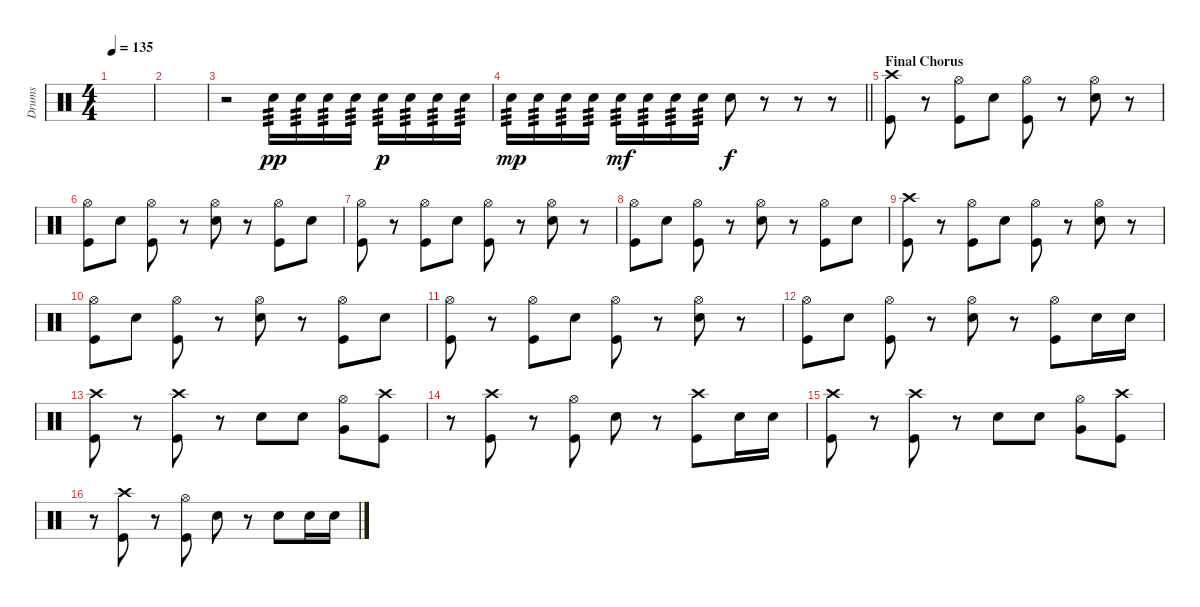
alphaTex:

\track ("Drums" "Drums") {instrument percussion}
\staff {score}
\articulation defaults
\ts (4 4)
\tempo 135
\clef neutral
\ks c
|
|
r.2 "Electric Snare (hit)".16{tp 3 dy pp} "Electric Snare (hit)".16{tp 3} "Electric Snare (hit)".16{tp 3} "Electric Snare (hit)".16{tp 3} "Electric Snare (hit)".16{tp 3 dy p} "Electric Snare (hit)".16{tp 3} "Electric Snare (hit)".16{tp 3} "Electric Snare (hit)".16{tp 3} |
\barLineRight lightlight "Electric Snare (hit)".16{tp 3 dy mp} "Electric Snare (hit)".16{tp 3} "Electric Snare (hit)".16{tp 3} "Electric Snare (hit)".16{tp 3} "Electric Snare (hit)".16{tp 3 dy mf} "Electric Snare (hit)".16{tp 3} "Electric Snare (hit)".16{tp 3} "Electric Snare (hit)".16{tp 3} "Electric Snare (hit)".8{dy f}
r.8 r.8 r.8 |
\section ("" "Final Chorus")
("Crash high (hit)" "Kick (hit)").8 r.8 ("Hi-Hat (open)" "Kick (hit)").8 "Electric Snare (hit)".8 ("Hi-Hat (open)" "Kick (hit)").8 r.8 ("Hi-Hat (open)" "Electric Snare (hit)").8 r.8 |
("Hi-Hat (open)" "Kick (hit)").8 "Electric Snare (hit)".8 ("Hi-Hat (open)" "Kick (hit)").8 r.8 ("Hi-Hat (open)" "Electric Snare (hit)").8 r.8 ("Hi-Hat (open)" "Kick (hit)").8 "Electric Snare (hit)".8 |
("Hi-Hat (open)" "Kick (hit)").8 r.8 ("Hi-Hat (open)" "Kick (hit)").8 "Electric Snare (hit)".8 ("Hi-Hat (open)" "Kick (hit)").8 r.8 ("Hi-Hat (open)" "Electric Snare (hit)").8 r.8 |
("Hi-Hat (open)" "Kick (hit)").8 "Electric Snare (hit)".8 ("Hi-Hat (open)" "Kick (hit)").8 r.8 ("Hi-Hat (open)" "Electric Snare (hit)").8 r.8 ("Hi-Hat (open)" "Kick (hit)").8 "Electric Snare (hit)".8 |
("Crash high (hit)" "Kick (hit)").8 r.8 ("Hi-Hat (open)" "Kick (hit)").8 "Electric Snare (hit)".8 ("Hi-Hat (open)" "Kick (hit)").8 r.8 ("Hi-Hat (open)" "Electric Snare (hit)").8 r.8 |
("Hi-Hat (open)" "Kick (hit)").8 "Electric Snare (hit)".8 ("Hi-Hat (open)" "Kick (hit)").8 r.8 ("Hi-Hat (open)" "Electric Snare (hit)").8 r.8 ("Hi-Hat (open)" "Kick (hit)").8 "Electric Snare (hit)".8 |
("Hi-Hat (open)" "Kick (hit)").8 r.8 ("Hi-Hat (open)" "Kick (hit)").8 "Electric Snare (hit)".8 ("Hi-Hat (open)" "Kick (hit)").8 r.8 ("Hi-Hat (open)" "Electric Snare (hit)").8 r.8 |
("Hi-Hat (open)" "Kick (hit)").8 "Electric Snare (hit)".8 ("Hi-Hat (open)" "Kick (hit)").8 r.8 ("Hi-Hat (open)" "Electric Snare (hit)").8 r.8 ("Hi-Hat (open)" "Kick (hit)").8 "Electric Snare (hit)".16 "Electric Snare (hit)".16 |
("Crash high (hit)" "Kick (hit)").8 r.8 ("Crash high (hit)" "Kick (hit)").8 r.8 "Electric Snare (hit)".8 "Electric Snare (hit)".8 ("Hi-Hat (open)" "Very Low Tom (hit)").8 ("Crash high (hit)" "Kick (hit)").8 |
r.8 ("Crash high (hit)" "Kick (hit)").8 r.8 ("Hi-Hat (open)" "Kick (hit)").8 "Electric Snare (hit)".8 r.8 ("Crash high (hit)" "Kick (hit)").8 "Electric Snare (hit)".16 "Electric Snare (hit)".16 |
("Crash high (hit)" "Kick (hit)").8 r.8 ("Crash high (hit)" "Kick (hit)").8 r.8 "Electric Snare (hit)".8 "Electric Snare (hit)".8 ("Hi-Hat (open)" "Very Low Tom (hit)").8 ("Crash high (hit)" "Kick (hit)").8 |
r.8 ("Crash high (hit)" "Kick (hit)").8 r.8 ("Hi-Hat (open)" "Kick (hit)").8 "Electric Snare (hit)".8 r.8 "Electric Snare (hit)".8 "Electric Snare (hit)".16 "Electric Snare (hit)".16
